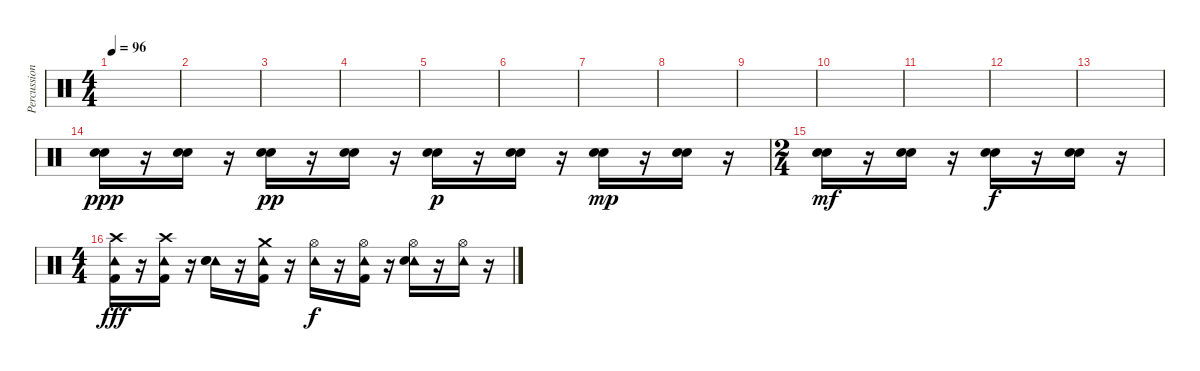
\track ("Percussions" "Percussion") {instrument percussion}
\staff {score}
\articulation defaults
\ts (4 4)
\tempo 96
\clef neutral
\ks c
|
|
|
|
|
|
|
|
|
|
|
|
|
("Snare (hit) 2" "Electric Snare (hit)").16{dy ppp} r.16 ("Snare (hit) 2" "Electric Snare (hit)").16 r.16 ("Snare (hit) 2" "Electric Snare (hit)").16{dy pp} r.16 ("Snare (hit) 2" "Electric Snare (hit)").16 r.16 ("Snare (hit) 2" "Electric Snare (hit)").16{dy p} r.16 ("Snare (hit) 2" "Electric Snare (hit)").16 r.16 ("Snare (hit) 2" "Electric Snare (hit)").16{dy mp} r.16 ("Snare (hit) 2" "Electric Snare (hit)").16 r.16 |
\ts (2 4)
("Snare (hit) 2" "Electric Snare (hit)").16{dy mf} r.16 ("Snare (hit) 2" "Electric Snare (hit)").16 r.16 ("Snare (hit) 2" "Electric Snare (hit)").16{dy f} r.16 ("Snare (hit) 2" "Electric Snare (hit)").16 r.16 |
\ts (4 4)
("Crash high (hit)" "Tambourine (hit)" "Kick (hit) 2").16{dy fff} r.16 ("Crash high (hit)" "Tambourine (hit)" "Kick (hit) 2").16 r.16 ("Tambourine (hit)" "Snare (hit) 2" "Electric Snare (hit)").16 r.16 ("Crash medium (hit)" "Tambourine (hit)" "Kick (hit) 2").16 r.16 ("Hi-Hat (open)" "Tambourine (hit)").16{dy f} r.16 ("Hi-Hat (open)" "Tambourine (hit)" "Kick (hit) 2").16 r.16 ("Hi-Hat (open)" "Tambourine (hit)" "Electric Snare (hit)").16 r.16 ("Hi-Hat (open)" "Tambourine (hit)").16 r.16
